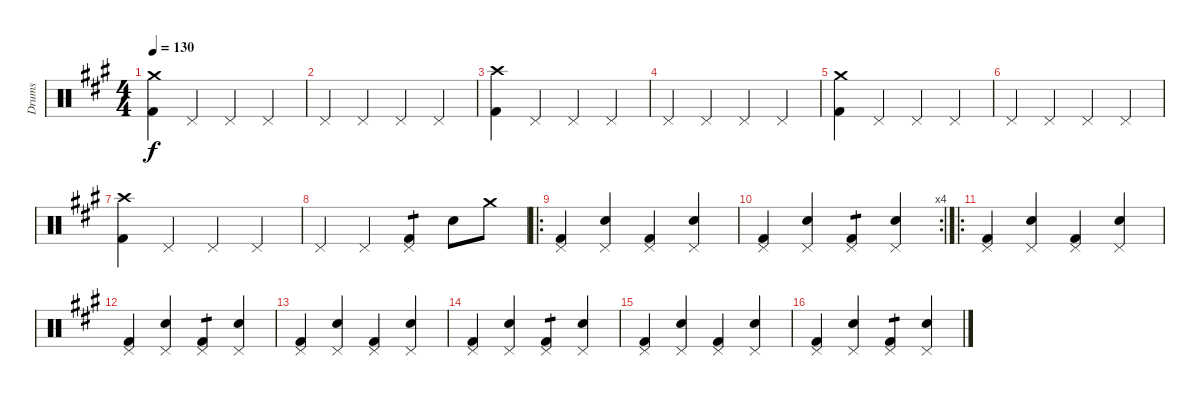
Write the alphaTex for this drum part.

\track ("Drums" "Drums") {instrument percussion}
\staff {score}
\articulation defaults
\ts (4 4)
\tempo 130
\clef neutral
\ks a
("Kick (hit) 2" "Crash medium (hit)").4{dy f} "Pedal Hi-Hat (hit)".4 "Pedal Hi-Hat (hit)".4 "Pedal Hi-Hat (hit)".4 |
"Pedal Hi-Hat (hit)".4 "Pedal Hi-Hat (hit)".4 "Pedal Hi-Hat (hit)".4 "Pedal Hi-Hat (hit)".4 |
("Kick (hit) 2" "Crash high (hit)").4 "Pedal Hi-Hat (hit)".4 "Pedal Hi-Hat (hit)".4 "Pedal Hi-Hat (hit)".4 |
"Pedal Hi-Hat (hit)".4 "Pedal Hi-Hat (hit)".4 "Pedal Hi-Hat (hit)".4 "Pedal Hi-Hat (hit)".4 |
("Kick (hit) 2" "Crash medium (hit)").4 "Pedal Hi-Hat (hit)".4 "Pedal Hi-Hat (hit)".4 "Pedal Hi-Hat (hit)".4 |
"Pedal Hi-Hat (hit)".4 "Pedal Hi-Hat (hit)".4 "Pedal Hi-Hat (hit)".4 "Pedal Hi-Hat (hit)".4 |
("Kick (hit) 2" "Crash high (hit)").4 "Pedal Hi-Hat (hit)".4 "Pedal Hi-Hat (hit)".4 "Pedal Hi-Hat (hit)".4 |
"Pedal Hi-Hat (hit)".4 "Pedal Hi-Hat (hit)".4 ("Kick (hit) 2" "Pedal Hi-Hat (hit)").4{tp 1} "Snare (hit) 2".8 "Crash medium (hit)".8 |
\ro
("Kick (hit) 2" "Pedal Hi-Hat (hit)").4 ("Snare (hit) 2" "Pedal Hi-Hat (hit)").4 ("Kick (hit) 2" "Pedal Hi-Hat (hit)").4 ("Snare (hit) 2" "Pedal Hi-Hat (hit)").4 |
\rc 4
("Pedal Hi-Hat (hit)" "Kick (hit) 2").4 ("Pedal Hi-Hat (hit)" "Snare (hit) 2").4 ("Pedal Hi-Hat (hit)" "Kick (hit) 2").4{tp 1} ("Pedal Hi-Hat (hit)" "Snare (hit) 2").4 |
\ro
("Kick (hit) 2" "Pedal Hi-Hat (hit)").4 ("Snare (hit) 2" "Pedal Hi-Hat (hit)").4 ("Kick (hit) 2" "Pedal Hi-Hat (hit)").4 ("Snare (hit) 2" "Pedal Hi-Hat (hit)").4 |
("Kick (hit) 2" "Pedal Hi-Hat (hit)").4 ("Snare (hit) 2" "Pedal Hi-Hat (hit)").4 ("Kick (hit) 2" "Pedal Hi-Hat (hit)").4{tp 1} ("Snare (hit) 2" "Pedal Hi-Hat (hit)").4 |
("Kick (hit) 2" "Pedal Hi-Hat (hit)").4 ("Snare (hit) 2" "Pedal Hi-Hat (hit)").4 ("Kick (hit) 2" "Pedal Hi-Hat (hit)").4 ("Snare (hit) 2" "Pedal Hi-Hat (hit)").4 |
("Kick (hit) 2" "Pedal Hi-Hat (hit)").4 ("Snare (hit) 2" "Pedal Hi-Hat (hit)").4 ("Kick (hit) 2" "Pedal Hi-Hat (hit)").4{tp 1} ("Snare (hit) 2" "Pedal Hi-Hat (hit)").4 |
("Kick (hit) 2" "Pedal Hi-Hat (hit)").4 ("Snare (hit) 2" "Pedal Hi-Hat (hit)").4 ("Kick (hit) 2" "Pedal Hi-Hat (hit)").4 ("Snare (hit) 2" "Pedal Hi-Hat (hit)").4 |
("Kick (hit) 2" "Pedal Hi-Hat (hit)").4 ("Snare (hit) 2" "Pedal Hi-Hat (hit)").4 ("Kick (hit) 2" "Pedal Hi-Hat (hit)").4{tp 1} ("Snare (hit) 2" "Pedal Hi-Hat (hit)").4
